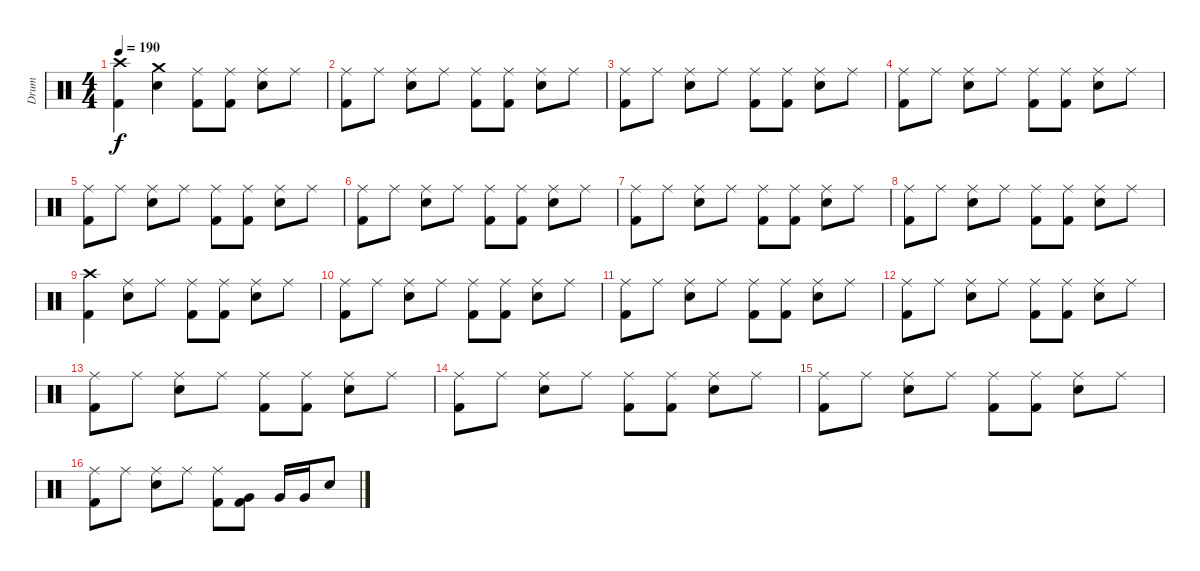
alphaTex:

\track ("Drum" "Drum") {instrument percussion}
\staff {score}
\articulation defaults
\ts (4 4)
\tempo 190
\clef neutral
\ks c
("Crash high (hit)" "Kick (hit) 2").4{dy f} ("Crash medium (hit)" "Electric Snare (hit)").4 ("Ride (middle)" "Kick (hit) 2").8 ("Ride (middle)" "Kick (hit) 2").8 ("Ride (middle)" "Electric Snare (hit)").8 "Ride (middle)".8 |
("Ride (middle)" "Kick (hit) 2").8 "Ride (middle)".8 ("Ride (middle)" "Electric Snare (hit)").8 "Ride (middle)".8 ("Ride (middle)" "Kick (hit) 2").8 ("Ride (middle)" "Kick (hit) 2").8 ("Ride (middle)" "Electric Snare (hit)").8 "Ride (middle)".8 |
("Ride (middle)" "Kick (hit) 2").8 "Ride (middle)".8 ("Ride (middle)" "Electric Snare (hit)").8 "Ride (middle)".8 ("Ride (middle)" "Kick (hit) 2").8 ("Ride (middle)" "Kick (hit) 2").8 ("Ride (middle)" "Electric Snare (hit)").8 "Ride (middle)".8 |
("Ride (middle)" "Kick (hit) 2").8 "Ride (middle)".8 ("Ride (middle)" "Electric Snare (hit)").8 "Ride (middle)".8 ("Ride (middle)" "Kick (hit) 2").8 ("Ride (middle)" "Kick (hit) 2").8 ("Ride (middle)" "Electric Snare (hit)").8 "Ride (middle)".8 |
("Ride (middle)" "Kick (hit) 2").8 "Ride (middle)".8 ("Ride (middle)" "Electric Snare (hit)").8 "Ride (middle)".8 ("Ride (middle)" "Kick (hit) 2").8 ("Ride (middle)" "Kick (hit) 2").8 ("Ride (middle)" "Electric Snare (hit)").8 "Ride (middle)".8 |
("Ride (middle)" "Kick (hit) 2").8 "Ride (middle)".8 ("Ride (middle)" "Electric Snare (hit)").8 "Ride (middle)".8 ("Ride (middle)" "Kick (hit) 2").8 ("Ride (middle)" "Kick (hit) 2").8 ("Ride (middle)" "Electric Snare (hit)").8 "Ride (middle)".8 |
("Ride (middle)" "Kick (hit) 2").8 "Ride (middle)".8 ("Ride (middle)" "Electric Snare (hit)").8 "Ride (middle)".8 ("Ride (middle)" "Kick (hit) 2").8 ("Ride (middle)" "Kick (hit) 2").8 ("Ride (middle)" "Electric Snare (hit)").8 "Ride (middle)".8 |
("Ride (middle)" "Kick (hit) 2").8 "Ride (middle)".8 ("Ride (middle)" "Electric Snare (hit)").8 "Ride (middle)".8 ("Ride (middle)" "Kick (hit) 2").8 ("Ride (middle)" "Kick (hit) 2").8 ("Ride (middle)" "Electric Snare (hit)").8 "Ride (middle)".8 |
("Crash high (hit)" "Kick (hit) 2").4 ("Ride (middle)" "Electric Snare (hit)").8 "Ride (middle)".8 ("Ride (middle)" "Kick (hit) 2").8 ("Ride (middle)" "Kick (hit) 2").8 ("Ride (middle)" "Electric Snare (hit)").8 "Ride (middle)".8 |
("Ride (middle)" "Kick (hit) 2").8 "Ride (middle)".8 ("Ride (middle)" "Electric Snare (hit)").8 "Ride (middle)".8 ("Ride (middle)" "Kick (hit) 2").8 ("Ride (middle)" "Kick (hit) 2").8 ("Ride (middle)" "Electric Snare (hit)").8 "Ride (middle)".8 |
("Ride (middle)" "Kick (hit) 2").8 "Ride (middle)".8 ("Ride (middle)" "Electric Snare (hit)").8 "Ride (middle)".8 ("Ride (middle)" "Kick (hit) 2").8 ("Ride (middle)" "Kick (hit) 2").8 ("Ride (middle)" "Electric Snare (hit)").8 "Ride (middle)".8 |
("Ride (middle)" "Kick (hit) 2").8 "Ride (middle)".8 ("Ride (middle)" "Electric Snare (hit)").8 "Ride (middle)".8 ("Ride (middle)" "Kick (hit) 2").8 ("Ride (middle)" "Kick (hit) 2").8 ("Ride (middle)" "Electric Snare (hit)").8 "Ride (middle)".8 |
("Ride (middle)" "Kick (hit) 2").8 "Ride (middle)".8 ("Ride (middle)" "Electric Snare (hit)").8 "Ride (middle)".8 ("Ride (middle)" "Kick (hit) 2").8 ("Ride (middle)" "Kick (hit) 2").8 ("Ride (middle)" "Electric Snare (hit)").8 "Ride (middle)".8 |
("Ride (middle)" "Kick (hit) 2").8 "Ride (middle)".8 ("Ride (middle)" "Electric Snare (hit)").8 "Ride (middle)".8 ("Ride (middle)" "Kick (hit) 2").8 ("Ride (middle)" "Kick (hit) 2").8 ("Ride (middle)" "Electric Snare (hit)").8 "Ride (middle)".8 |
("Ride (middle)" "Kick (hit) 2").8 "Ride (middle)".8 ("Ride (middle)" "Electric Snare (hit)").8 "Ride (middle)".8 ("Ride (middle)" "Kick (hit) 2").8 ("Ride (middle)" "Kick (hit) 2").8 ("Ride (middle)" "Electric Snare (hit)").8 "Ride (middle)".8 |
("Ride (middle)" "Kick (hit) 2").8 "Ride (middle)".8 ("Ride (middle)" "Electric Snare (hit)").8 "Ride (middle)".8 ("Ride (middle)" "Kick (hit) 2").8 ("Very Low Tom (hit)" "Kick (hit) 2").8 "Very Low Tom (hit)".16 "Very Low Tom (hit)".16 "Electric Snare (hit)".8
